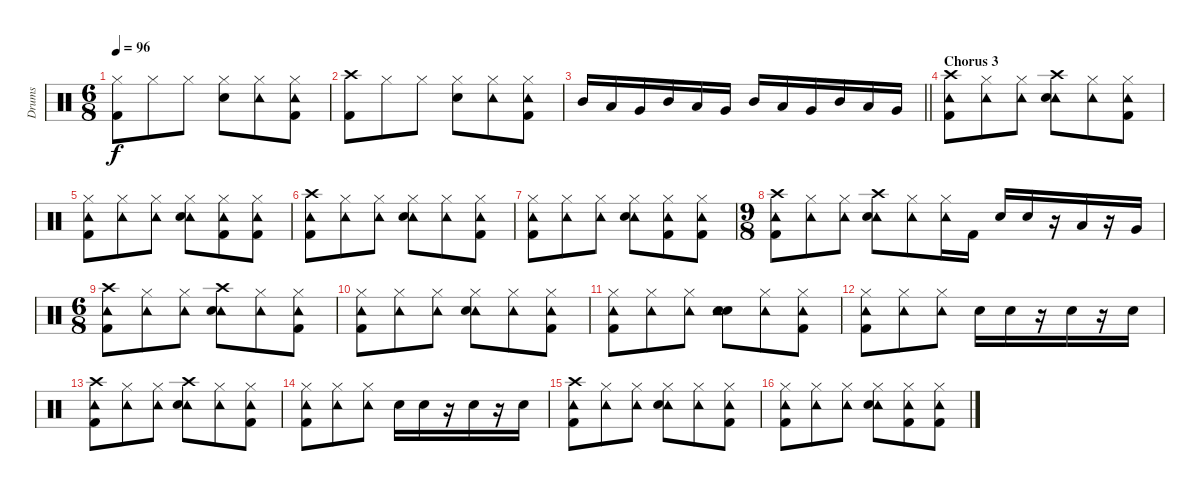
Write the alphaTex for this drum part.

\track ("Drums" "Drums") {instrument percussion}
\staff {score}
\articulation defaults
\ts (6 8)
\tempo 96
\clef neutral
\ks c
("Hi-Hat (closed)" "Kick (hit) 2").8{dy f} "Hi-Hat (closed)".8 "Hi-Hat (closed)".8 ("Hi-Hat (closed)" "Snare (hit) 2").8 ("Hi-Hat (closed)" "Tambourine (hit)").8 ("Hi-Hat (closed)" "Tambourine (hit)" "Kick (hit) 2").8 |
("Crash high (hit)" "Kick (hit) 2").8 "Hi-Hat (closed)".8 "Hi-Hat (closed)".8 ("Hi-Hat (closed)" "Snare (hit) 2").8 ("Hi-Hat (closed)" "Tambourine (hit)").8 ("Hi-Hat (closed)" "Tambourine (hit)" "Kick (hit) 2").8 |
\barLineRight lightlight "Mid Tom (hit)".16 "Low Tom (hit)".16 "Very Low Tom (hit)".16 "Mid Tom (hit)".16 "Low Tom (hit)".16 "Very Low Tom (hit)".16 "Mid Tom (hit)".16 "Low Tom (hit)".16 "Very Low Tom (hit)".16 "Mid Tom (hit)".16 "Low Tom (hit)".16 "Very Low Tom (hit)".16
|
\section ("" "Chorus 3")
("Crash high (hit)" "Tambourine (hit)" "Kick (hit) 2").8 ("Hi-Hat (closed)" "Tambourine (hit)").8 ("Hi-Hat (closed)" "Tambourine (hit)").8 ("Crash high (hit)" "Tambourine (hit)" "Snare (hit) 2").8 ("Hi-Hat (closed)" "Tambourine (hit)").8 ("Hi-Hat (closed)" "Tambourine (hit)" "Kick (hit) 2").8 |
("Hi-Hat (closed)" "Tambourine (hit)" "Kick (hit) 2").8 ("Hi-Hat (closed)" "Tambourine (hit)").8 ("Hi-Hat (closed)" "Tambourine (hit)").8 ("Hi-Hat (closed)" "Tambourine (hit)" "Snare (hit) 2").8 ("Hi-Hat (closed)" "Tambourine (hit)" "Kick (hit) 2").8 ("Hi-Hat (closed)" "Tambourine (hit)" "Kick (hit) 2").8 |
("Crash high (hit)" "Tambourine (hit)" "Kick (hit) 2").8 ("Hi-Hat (closed)" "Tambourine (hit)").8 ("Hi-Hat (closed)" "Tambourine (hit)").8 ("Hi-Hat (closed)" "Tambourine (hit)" "Snare (hit) 2").8 ("Hi-Hat (closed)" "Tambourine (hit)").8 ("Hi-Hat (closed)" "Tambourine (hit)" "Kick (hit) 2").8 |
("Hi-Hat (closed)" "Tambourine (hit)" "Kick (hit) 2").8 ("Hi-Hat (closed)" "Tambourine (hit)").8 ("Hi-Hat (closed)" "Tambourine (hit)").8 ("Hi-Hat (closed)" "Tambourine (hit)" "Snare (hit) 2").8 ("Hi-Hat (closed)" "Tambourine (hit)" "Kick (hit) 2").8 ("Hi-Hat (closed)" "Tambourine (hit)" "Kick (hit) 2").8 |
\ts (9 8)
("Crash high (hit)" "Tambourine (hit)" "Kick (hit) 2").8 ("Hi-Hat (closed)" "Tambourine (hit)").8 ("Hi-Hat (closed)" "Tambourine (hit)").8 ("Crash high (hit)" "Tambourine (hit)" "Snare (hit) 2").8 ("Hi-Hat (closed)" "Tambourine (hit)").8 ("Hi-Hat (closed)" "Tambourine (hit)").16 "Kick (hit) 2".16 "Snare (hit) 2".16 "Snare (hit) 2".16 r.16 "Low Tom (hit)".16 r.16 "Very Low Tom (hit)".16 |
\ts (6 8)
("Crash high (hit)" "Tambourine (hit)" "Kick (hit) 2").8 ("Hi-Hat (closed)" "Tambourine (hit)").8 ("Hi-Hat (closed)" "Tambourine (hit)").8 ("Crash high (hit)" "Tambourine (hit)" "Snare (hit) 2").8 ("Hi-Hat (closed)" "Tambourine (hit)").8 ("Hi-Hat (closed)" "Tambourine (hit)" "Kick (hit) 2").8 |
("Hi-Hat (closed)" "Tambourine (hit)" "Kick (hit) 2").8 ("Hi-Hat (closed)" "Tambourine (hit)").8 ("Hi-Hat (closed)" "Tambourine (hit)").8 ("Hi-Hat (closed)" "Tambourine (hit)" "Snare (hit) 2").8 ("Hi-Hat (closed)" "Tambourine (hit)").8 ("Hi-Hat (closed)" "Tambourine (hit)" "Kick (hit) 2").8 |
("Hi-Hat (closed)" "Tambourine (hit)" "Kick (hit) 2").8 ("Hi-Hat (closed)" "Tambourine (hit)").8 ("Hi-Hat (closed)" "Tambourine (hit)").8 ("Electric Snare (hit)" "Tambourine (hit)" "Snare (hit) 2").8 ("Hi-Hat (closed)" "Tambourine (hit)").8 ("Hi-Hat (closed)" "Tambourine (hit)" "Kick (hit) 2").8 |
("Hi-Hat (closed)" "Tambourine (hit)" "Kick (hit) 2").8 ("Hi-Hat (closed)" "Tambourine (hit)").8 ("Hi-Hat (closed)" "Tambourine (hit)").8 "Snare (hit) 2".16 "Snare (hit) 2".16 r.16 "Snare (hit) 2".16 r.16 "Snare (hit) 2".16 |
("Crash high (hit)" "Tambourine (hit)" "Kick (hit) 2").8 ("Hi-Hat (closed)" "Tambourine (hit)").8 ("Hi-Hat (closed)" "Tambourine (hit)").8 ("Crash high (hit)" "Tambourine (hit)" "Snare (hit) 2").8 ("Hi-Hat (closed)" "Tambourine (hit)").8 ("Hi-Hat (closed)" "Tambourine (hit)" "Kick (hit) 2").8 |
("Hi-Hat (closed)" "Tambourine (hit)" "Kick (hit) 2").8 ("Hi-Hat (closed)" "Tambourine (hit)").8 ("Hi-Hat (closed)" "Tambourine (hit)").8 "Snare (hit) 2".16 "Snare (hit) 2".16 r.16 "Snare (hit) 2".16 r.16 "Snare (hit) 2".16 |
("Crash high (hit)" "Tambourine (hit)" "Kick (hit) 2").8 ("Hi-Hat (closed)" "Tambourine (hit)").8 ("Hi-Hat (closed)" "Tambourine (hit)").8 ("Hi-Hat (closed)" "Tambourine (hit)" "Snare (hit) 2").8 ("Hi-Hat (closed)" "Tambourine (hit)").8 ("Hi-Hat (closed)" "Tambourine (hit)" "Kick (hit) 2").8 |
("Hi-Hat (closed)" "Tambourine (hit)" "Kick (hit) 2").8 ("Hi-Hat (closed)" "Tambourine (hit)").8 ("Hi-Hat (closed)" "Tambourine (hit)").8 ("Hi-Hat (closed)" "Tambourine (hit)" "Snare (hit) 2").8 ("Hi-Hat (closed)" "Tambourine (hit)" "Kick (hit) 2").8 ("Hi-Hat (closed)" "Tambourine (hit)" "Kick (hit) 2").8
